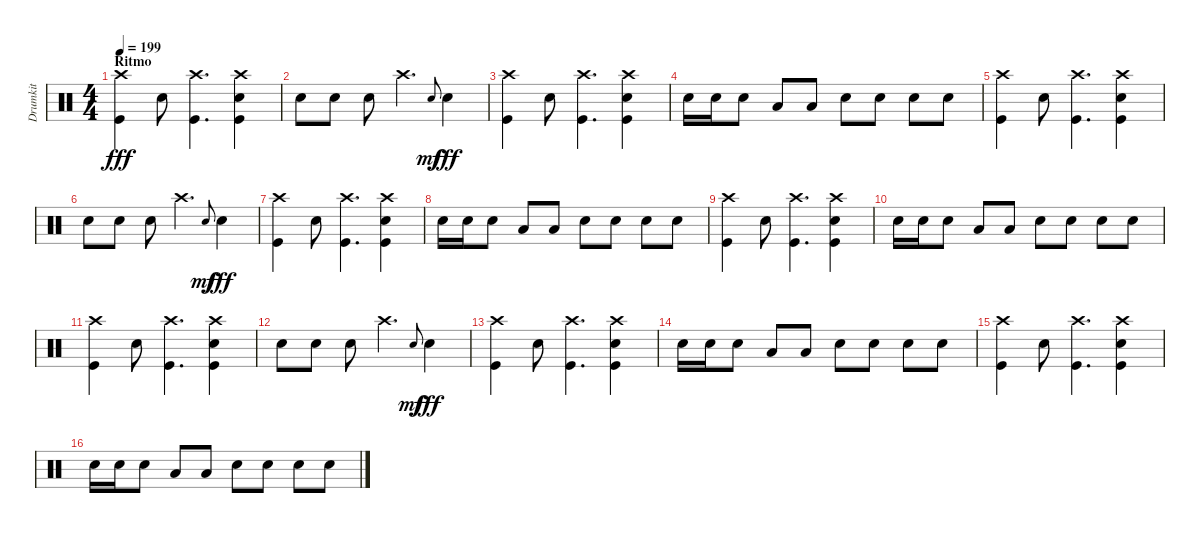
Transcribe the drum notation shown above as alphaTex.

\track ("Drumkit" "Drumkit") {instrument percussion}
\staff
\articulation defaults
\ts (4 4)
\section ("" "Ritmo")
\tempo 199
\clef neutral
\ks c
("Crash high (hit)" "Kick (hit)").4{dy fff} "Snare (hit) 2".8 ("Crash high (hit)" "Kick (hit)").4{d} ("Crash high (hit)" "Kick (hit)" "Snare (hit) 2").4 |
"Snare (hit) 2".8 "Snare (hit) 2".8 "Snare (hit) 2".8 "Crash high (hit)".4{d} "Snare (hit)".8{gr onbeat dy mf} "Snare (hit) 2".4{dy fff} |
("Crash high (hit)" "Kick (hit)").4 "Snare (hit) 2".8 ("Crash high (hit)" "Kick (hit)").4{d} ("Crash high (hit)" "Kick (hit)" "Snare (hit) 2").4 |
"Snare (hit) 2".16 "Snare (hit) 2".16 "Snare (hit) 2".8 "Low Tom (hit)".8 "Low Tom (hit)".8 "Snare (hit) 2".8 "Snare (hit) 2".8 "Snare (hit) 2".8 "Snare (hit) 2".8 |
("Crash high (hit)" "Kick (hit)").4 "Snare (hit) 2".8 ("Crash high (hit)" "Kick (hit)").4{d} ("Crash high (hit)" "Kick (hit)" "Snare (hit) 2").4 |
"Snare (hit) 2".8 "Snare (hit) 2".8 "Snare (hit) 2".8 "Crash high (hit)".4{d} "Snare (hit)".8{gr onbeat dy mf} "Snare (hit) 2".4{dy fff} |
("Crash high (hit)" "Kick (hit)").4 "Snare (hit) 2".8 ("Crash high (hit)" "Kick (hit)").4{d} ("Crash high (hit)" "Kick (hit)" "Snare (hit) 2").4 |
"Snare (hit) 2".16 "Snare (hit) 2".16 "Snare (hit) 2".8 "Low Tom (hit)".8 "Low Tom (hit)".8 "Snare (hit) 2".8 "Snare (hit) 2".8 "Snare (hit) 2".8 "Snare (hit) 2".8 |
("Crash high (hit)" "Kick (hit)").4 "Snare (hit) 2".8 ("Crash high (hit)" "Kick (hit)").4{d} ("Crash high (hit)" "Kick (hit)" "Snare (hit) 2").4 |
"Snare (hit) 2".16 "Snare (hit) 2".16 "Snare (hit) 2".8 "Low Tom (hit)".8 "Low Tom (hit)".8 "Snare (hit) 2".8 "Snare (hit) 2".8 "Snare (hit) 2".8 "Snare (hit) 2".8 |
("Crash high (hit)" "Kick (hit)").4 "Snare (hit) 2".8 ("Crash high (hit)" "Kick (hit)").4{d} ("Crash high (hit)" "Kick (hit)" "Snare (hit) 2").4 |
"Snare (hit) 2".8 "Snare (hit) 2".8 "Snare (hit) 2".8 "Crash high (hit)".4{d} "Snare (hit)".8{gr onbeat dy mf} "Snare (hit) 2".4{dy fff} |
("Crash high (hit)" "Kick (hit)").4 "Snare (hit) 2".8 ("Crash high (hit)" "Kick (hit)").4{d} ("Crash high (hit)" "Kick (hit)" "Snare (hit) 2").4 |
"Snare (hit) 2".16 "Snare (hit) 2".16 "Snare (hit) 2".8 "Low Tom (hit)".8 "Low Tom (hit)".8 "Snare (hit) 2".8 "Snare (hit) 2".8 "Snare (hit) 2".8 "Snare (hit) 2".8 |
("Crash high (hit)" "Kick (hit)").4 "Snare (hit) 2".8 ("Crash high (hit)" "Kick (hit)").4{d} ("Crash high (hit)" "Kick (hit)" "Snare (hit) 2").4 |
"Snare (hit) 2".16 "Snare (hit) 2".16 "Snare (hit) 2".8 "Low Tom (hit)".8 "Low Tom (hit)".8 "Snare (hit) 2".8 "Snare (hit) 2".8 "Snare (hit) 2".8 "Snare (hit) 2".8
